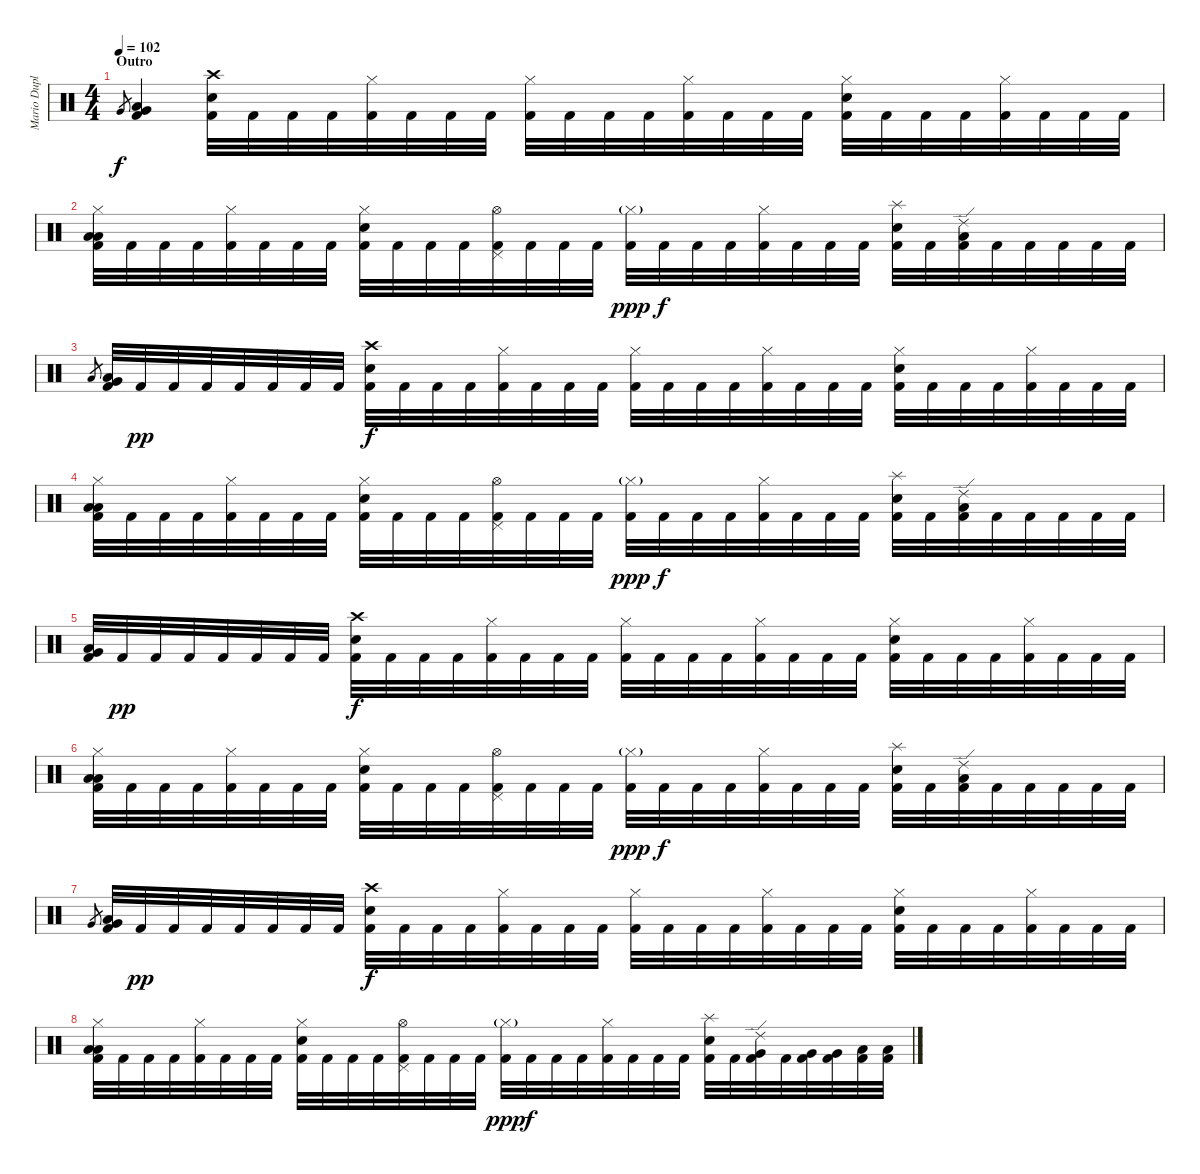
\track ("Mario Duplantier" "Mario Dupl") {instrument percussion}
\staff {score}
\articulation defaults
\ts (4 4)
\section ("" "Outro")
\tempo 102
\clef neutral
\ks c "Very Low Tom (hit)".8{gr dy f}
("Low Floor Tom (hit)" "Very Low Tom (hit)" "Kick (hit) 2").4 ("Crash high (hit)" "Snare (hit) 2" "Kick (hit) 2").32 "Kick (hit) 2".32 "Kick (hit) 2".32 "Kick (hit) 2".32 ("Hi-Hat (closed)" "Kick (hit) 2").32 "Kick (hit) 2".32 "Kick (hit) 2".32 "Kick (hit) 2".32 ("Hi-Hat (closed)" "Kick (hit) 2").32 "Kick (hit) 2".32 "Kick (hit) 2".32 "Kick (hit) 2".32 ("Hi-Hat (closed)" "Kick (hit) 2").32 "Kick (hit) 2".32 "Kick (hit) 2".32 "Kick (hit) 2".32 ("Hi-Hat (closed)" "Snare (hit) 2" "Kick (hit) 2").32 "Kick (hit) 2".32 "Kick (hit) 2".32 "Kick (hit) 2".32 ("Hi-Hat (closed)" "Kick (hit) 2").32 "Kick (hit) 2".32 "Kick (hit) 2".32 "Kick (hit) 2".32 |
("Hi-Hat (closed)" "Low Floor Tom (hit)" "Low Floor Tom (hit)" "Kick (hit) 2").32 "Kick (hit) 2".32 "Kick (hit) 2".32 "Kick (hit) 2".32 ("Hi-Hat (closed)" "Kick (hit) 2").32 "Kick (hit) 2".32 "Kick (hit) 2".32 "Kick (hit) 2".32 ("Hi-Hat (closed)" "Snare (hit) 2" "Kick (hit) 2").32 "Kick (hit) 2".32 "Kick (hit) 2".32 "Kick (hit) 2".32 ("Hi-Hat (open)" "Pedal Hi-Hat (hit)" "Kick (hit) 2").32 "Kick (hit) 2".32 "Kick (hit) 2".32 "Kick (hit) 2".32 ("Hi-Hat (closed)"{g} "Kick (hit) 2").32{dy ppp} "Kick (hit) 2".32{dy f} "Kick (hit) 2".32 "Kick (hit) 2".32 ("Hi-Hat (closed)" "Kick (hit) 2").32 "Kick (hit) 2".32 "Kick (hit) 2".32 "Kick (hit) 2".32 ("Splash (hit)" "Snare (hit) 2" "Kick (hit) 2").32 "Kick (hit) 2".32 ("Ride (edge) 2" "Low Floor Tom (hit)" "Kick (hit) 2").32 "Kick (hit) 2".32 "Kick (hit) 2".32 "Kick (hit) 2".32 "Kick (hit) 2".32 "Kick (hit) 2".32 |
"Low Floor Tom (hit)".8{gr} ("Low Floor Tom (hit)" "Very Low Tom (hit)" "Kick (hit) 2").32 "Kick (hit) 2".32{dy pp} "Kick (hit) 2".32 "Kick (hit) 2".32 "Kick (hit) 2".32 "Kick (hit) 2".32 "Kick (hit) 2".32 "Kick (hit) 2".32 ("Crash high (hit)" "Snare (hit) 2" "Kick (hit) 2").32{dy f} "Kick (hit) 2".32 "Kick (hit) 2".32 "Kick (hit) 2".32 ("Hi-Hat (closed)" "Kick (hit) 2").32 "Kick (hit) 2".32 "Kick (hit) 2".32 "Kick (hit) 2".32 ("Hi-Hat (closed)" "Kick (hit) 2").32 "Kick (hit) 2".32 "Kick (hit) 2".32 "Kick (hit) 2".32 ("Hi-Hat (closed)" "Kick (hit) 2").32 "Kick (hit) 2".32 "Kick (hit) 2".32 "Kick (hit) 2".32 ("Hi-Hat (closed)" "Snare (hit) 2" "Kick (hit) 2").32 "Kick (hit) 2".32 "Kick (hit) 2".32 "Kick (hit) 2".32 ("Hi-Hat (closed)" "Kick (hit) 2").32 "Kick (hit) 2".32 "Kick (hit) 2".32 "Kick (hit) 2".32 |
("Hi-Hat (closed)" "Low Floor Tom (hit)" "Low Floor Tom (hit)" "Kick (hit) 2").32 "Kick (hit) 2".32 "Kick (hit) 2".32 "Kick (hit) 2".32 ("Hi-Hat (closed)" "Kick (hit) 2").32 "Kick (hit) 2".32 "Kick (hit) 2".32 "Kick (hit) 2".32 ("Hi-Hat (closed)" "Snare (hit) 2" "Kick (hit) 2").32 "Kick (hit) 2".32 "Kick (hit) 2".32 "Kick (hit) 2".32 ("Hi-Hat (open)" "Pedal Hi-Hat (hit)" "Kick (hit) 2").32 "Kick (hit) 2".32 "Kick (hit) 2".32 "Kick (hit) 2".32 ("Hi-Hat (closed)"{g} "Kick (hit) 2").32{dy ppp} "Kick (hit) 2".32{dy f} "Kick (hit) 2".32 "Kick (hit) 2".32 ("Hi-Hat (closed)" "Kick (hit) 2").32 "Kick (hit) 2".32 "Kick (hit) 2".32 "Kick (hit) 2".32 ("Splash (hit)" "Snare (hit) 2" "Kick (hit) 2").32 "Kick (hit) 2".32 ("Ride (edge) 2" "Low Floor Tom (hit)" "Kick (hit) 2").32 "Kick (hit) 2".32 "Kick (hit) 2".32 "Kick (hit) 2".32 "Kick (hit) 2".32 "Kick (hit) 2".32 |
("Low Floor Tom (hit)" "Very Low Tom (hit)" "Kick (hit) 2").32 "Kick (hit) 2".32{dy pp} "Kick (hit) 2".32 "Kick (hit) 2".32 "Kick (hit) 2".32 "Kick (hit) 2".32 "Kick (hit) 2".32 "Kick (hit) 2".32 ("Crash high (hit)" "Snare (hit) 2" "Kick (hit) 2").32{dy f} "Kick (hit) 2".32 "Kick (hit) 2".32 "Kick (hit) 2".32 ("Hi-Hat (closed)" "Kick (hit) 2").32 "Kick (hit) 2".32 "Kick (hit) 2".32 "Kick (hit) 2".32 ("Hi-Hat (closed)" "Kick (hit) 2").32 "Kick (hit) 2".32 "Kick (hit) 2".32 "Kick (hit) 2".32 ("Hi-Hat (closed)" "Kick (hit) 2").32 "Kick (hit) 2".32 "Kick (hit) 2".32 "Kick (hit) 2".32 ("Hi-Hat (closed)" "Snare (hit) 2" "Kick (hit) 2").32 "Kick (hit) 2".32 "Kick (hit) 2".32 "Kick (hit) 2".32 ("Hi-Hat (closed)" "Kick (hit) 2").32 "Kick (hit) 2".32 "Kick (hit) 2".32 "Kick (hit) 2".32 |
("Hi-Hat (closed)" "Low Floor Tom (hit)" "Low Floor Tom (hit)" "Kick (hit) 2").32 "Kick (hit) 2".32 "Kick (hit) 2".32 "Kick (hit) 2".32 ("Hi-Hat (closed)" "Kick (hit) 2").32 "Kick (hit) 2".32 "Kick (hit) 2".32 "Kick (hit) 2".32 ("Hi-Hat (closed)" "Snare (hit) 2" "Kick (hit) 2").32 "Kick (hit) 2".32 "Kick (hit) 2".32 "Kick (hit) 2".32 ("Hi-Hat (open)" "Pedal Hi-Hat (hit)" "Kick (hit) 2").32 "Kick (hit) 2".32 "Kick (hit) 2".32 "Kick (hit) 2".32 ("Hi-Hat (closed)"{g} "Kick (hit) 2").32{dy ppp} "Kick (hit) 2".32{dy f} "Kick (hit) 2".32 "Kick (hit) 2".32 ("Hi-Hat (closed)" "Kick (hit) 2").32 "Kick (hit) 2".32 "Kick (hit) 2".32 "Kick (hit) 2".32 ("Splash (hit)" "Snare (hit) 2" "Kick (hit) 2").32 "Kick (hit) 2".32 ("Ride (edge) 2" "Low Floor Tom (hit)" "Kick (hit) 2").32 "Kick (hit) 2".32 "Kick (hit) 2".32 "Kick (hit) 2".32 "Kick (hit) 2".32 "Kick (hit) 2".32 |
"Very Low Tom (hit)".8{gr} ("Low Floor Tom (hit)" "Very Low Tom (hit)" "Kick (hit) 2").32 "Kick (hit) 2".32{dy pp} "Kick (hit) 2".32 "Kick (hit) 2".32 "Kick (hit) 2".32 "Kick (hit) 2".32 "Kick (hit) 2".32 "Kick (hit) 2".32 ("Crash high (hit)" "Snare (hit) 2" "Kick (hit) 2").32{dy f} "Kick (hit) 2".32 "Kick (hit) 2".32 "Kick (hit) 2".32 ("Hi-Hat (closed)" "Kick (hit) 2").32 "Kick (hit) 2".32 "Kick (hit) 2".32 "Kick (hit) 2".32 ("Hi-Hat (closed)" "Kick (hit) 2").32 "Kick (hit) 2".32 "Kick (hit) 2".32 "Kick (hit) 2".32 ("Hi-Hat (closed)" "Kick (hit) 2").32 "Kick (hit) 2".32 "Kick (hit) 2".32 "Kick (hit) 2".32 ("Hi-Hat (closed)" "Snare (hit) 2" "Kick (hit) 2").32 "Kick (hit) 2".32 "Kick (hit) 2".32 "Kick (hit) 2".32 ("Hi-Hat (closed)" "Kick (hit) 2").32 "Kick (hit) 2".32 "Kick (hit) 2".32 "Kick (hit) 2".32 |
("Hi-Hat (closed)" "Low Floor Tom (hit)" "Low Floor Tom (hit)" "Kick (hit) 2").32 "Kick (hit) 2".32 "Kick (hit) 2".32 "Kick (hit) 2".32 ("Hi-Hat (closed)" "Kick (hit) 2").32 "Kick (hit) 2".32 "Kick (hit) 2".32 "Kick (hit) 2".32 ("Hi-Hat (closed)" "Snare (hit) 2" "Kick (hit) 2").32 "Kick (hit) 2".32 "Kick (hit) 2".32 "Kick (hit) 2".32 ("Hi-Hat (open)" "Pedal Hi-Hat (hit)" "Kick (hit) 2").32 "Kick (hit) 2".32 "Kick (hit) 2".32 "Kick (hit) 2".32 ("Hi-Hat (closed)"{g} "Kick (hit) 2").32{dy ppp} "Kick (hit) 2".32{dy f} "Kick (hit) 2".32 "Kick (hit) 2".32 ("Hi-Hat (closed)" "Kick (hit) 2").32 "Kick (hit) 2".32 "Kick (hit) 2".32 "Kick (hit) 2".32 ("Splash (hit)" "Snare (hit) 2" "Kick (hit) 2").32 "Kick (hit) 2".32 ("Ride (edge) 2" "Very Low Tom (hit)" "Kick (hit) 2").32 "Kick (hit) 2".32 ("Very Low Tom (hit)" "Kick (hit) 2").32 ("Very Low Tom (hit)" "Kick (hit) 2").32 ("Low Floor Tom (hit)" "Kick (hit) 2").32 ("Low Floor Tom (hit)" "Kick (hit) 2").32
